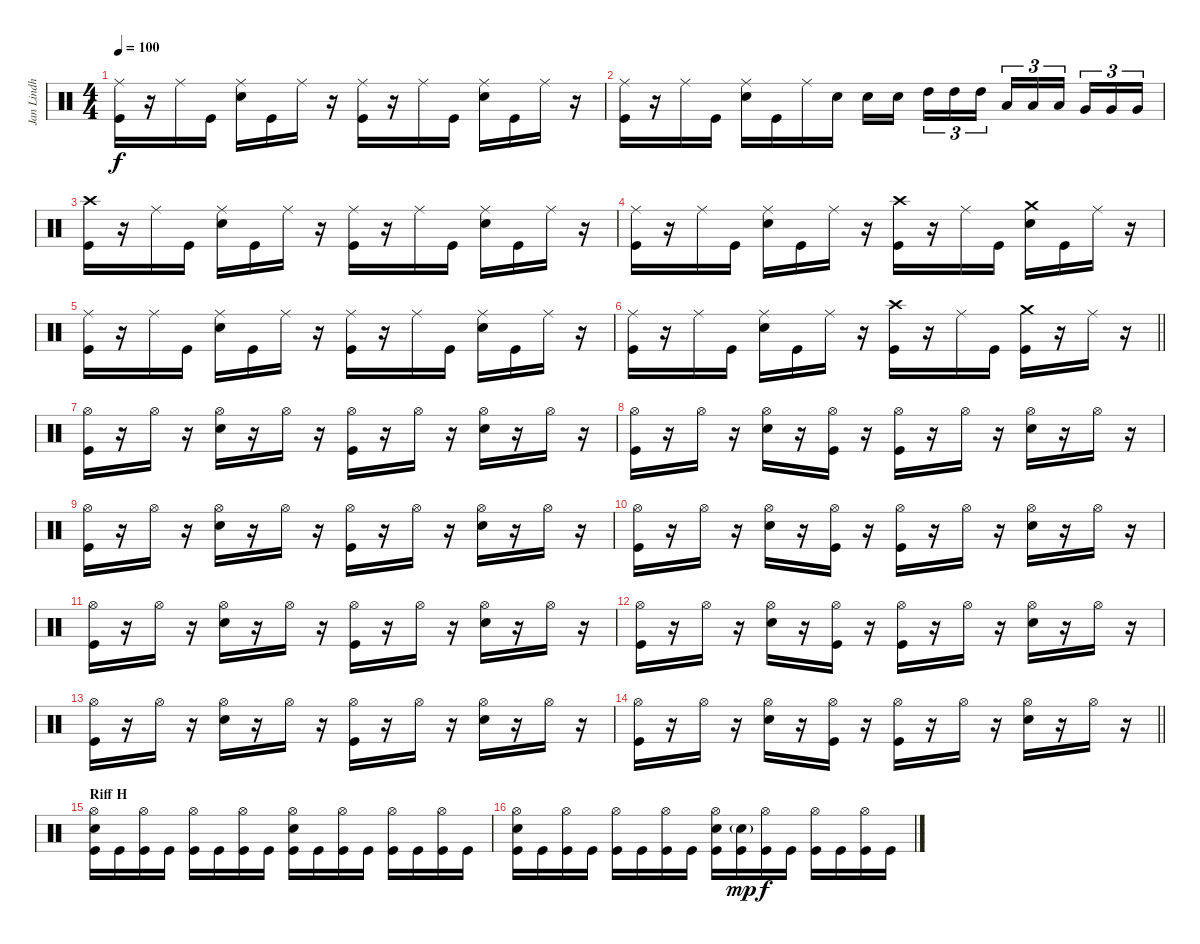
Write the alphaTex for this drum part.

\track ("Jan Lindh" "Jan Lindh") {instrument percussion}
\staff {score}
\articulation defaults
\ts (4 4)
\tempo 100
\clef neutral
\ks c
("Ride (middle)" "Kick (hit)").16{dy f} r.16 "Ride (middle)".16 "Kick (hit)".16 ("Ride (middle)" "Snare (hit) 2").16 "Kick (hit)".16 "Ride (middle)".16 r.16 ("Ride (middle)" "Kick (hit)").16 r.16 "Ride (middle)".16 "Kick (hit)".16 ("Ride (middle)" "Snare (hit) 2").16 "Kick (hit)".16 "Ride (middle)".16 r.16 |
("Ride (middle)" "Kick (hit)").16 r.16 "Ride (middle)".16 "Kick (hit)".16 ("Ride (middle)" "Snare (hit) 2").16 "Kick (hit)".16 "Ride (middle)".16 "Snare (hit) 2".16 "Snare (hit) 2".16 "Snare (hit) 2".16{beam splitsecondary} "High Tom (hit)".16{tu (3 2)} "High Tom (hit)".16{tu (3 2)} "High Tom (hit)".16{tu (3 2)} "Low Tom (hit)".16{tu (3 2)} "Low Tom (hit)".16{tu (3 2)} "Low Tom (hit)".16{tu (3 2) beam splitsecondary} "Very Low Tom (hit)".16{tu (3 2)} "Very Low Tom (hit)".16{tu (3 2)} "Very Low Tom (hit)".16{tu (3 2)} |
("Crash high (hit)" "Kick (hit)").16 r.16 "Ride (middle)".16 "Kick (hit)".16 ("Ride (middle)" "Snare (hit) 2").16 "Kick (hit)".16 "Ride (middle)".16 r.16 ("Ride (middle)" "Kick (hit)").16 r.16 "Ride (middle)".16 "Kick (hit)".16 ("Ride (middle)" "Snare (hit) 2").16 "Kick (hit)".16 "Ride (middle)".16 r.16 |
("Ride (middle)" "Kick (hit)").16 r.16 "Ride (middle)".16 "Kick (hit)".16 ("Ride (middle)" "Snare (hit) 2").16 "Kick (hit)".16 "Ride (middle)".16 r.16 ("Crash high (hit)" "Kick (hit)").16 r.16 "Ride (middle)".16 "Kick (hit)".16 ("Crash medium (hit)" "Snare (hit) 2").16 "Kick (hit)".16 "Ride (middle)".16 r.16 |
("Ride (middle)" "Kick (hit)").16 r.16 "Ride (middle)".16 "Kick (hit)".16 ("Ride (middle)" "Snare (hit) 2").16 "Kick (hit)".16 "Ride (middle)".16 r.16 ("Ride (middle)" "Kick (hit)").16 r.16 "Ride (middle)".16 "Kick (hit)".16 ("Ride (middle)" "Snare (hit) 2").16 "Kick (hit)".16 "Ride (middle)".16 r.16 |
\barLineRight lightlight
("Ride (middle)" "Kick (hit)").16 r.16 "Ride (middle)".16 "Kick (hit)".16 ("Ride (middle)" "Snare (hit) 2").16 "Kick (hit)".16 "Ride (middle)".16 r.16 ("Crash high (hit)" "Kick (hit)").16 r.16 "Ride (middle)".16 "Kick (hit)".16 ("Crash medium (hit)" "Kick (hit)").16 r.16 "Ride (middle)".16 r.16 |
("Hi-Hat (open)" "Kick (hit)").16 r.16 "Hi-Hat (open)".16 r.16 ("Hi-Hat (open)" "Snare (hit) 2").16 r.16 "Hi-Hat (open)".16 r.16 ("Hi-Hat (open)" "Kick (hit)").16 r.16 "Hi-Hat (open)".16 r.16 ("Hi-Hat (open)" "Snare (hit) 2").16 r.16 "Hi-Hat (open)".16 r.16 |
("Hi-Hat (open)" "Kick (hit)").16 r.16 "Hi-Hat (open)".16 r.16 ("Hi-Hat (open)" "Snare (hit) 2").16 r.16 ("Hi-Hat (open)" "Kick (hit)").16 r.16 ("Hi-Hat (open)" "Kick (hit)").16 r.16 "Hi-Hat (open)".16 r.16 ("Hi-Hat (open)" "Snare (hit) 2").16 r.16 "Hi-Hat (open)".16 r.16 |
("Hi-Hat (open)" "Kick (hit)").16 r.16 "Hi-Hat (open)".16 r.16 ("Hi-Hat (open)" "Snare (hit) 2").16 r.16 "Hi-Hat (open)".16 r.16 ("Hi-Hat (open)" "Kick (hit)").16 r.16 "Hi-Hat (open)".16 r.16 ("Hi-Hat (open)" "Snare (hit) 2").16 r.16 "Hi-Hat (open)".16 r.16 |
("Hi-Hat (open)" "Kick (hit)").16 r.16 "Hi-Hat (open)".16 r.16 ("Hi-Hat (open)" "Snare (hit) 2").16 r.16 ("Hi-Hat (open)" "Kick (hit)").16 r.16 ("Hi-Hat (open)" "Kick (hit)").16 r.16 "Hi-Hat (open)".16 r.16 ("Hi-Hat (open)" "Snare (hit) 2").16 r.16 "Hi-Hat (open)".16 r.16 |
("Hi-Hat (open)" "Kick (hit)").16 r.16 "Hi-Hat (open)".16 r.16 ("Hi-Hat (open)" "Snare (hit) 2").16 r.16 "Hi-Hat (open)".16 r.16 ("Hi-Hat (open)" "Kick (hit)").16 r.16 "Hi-Hat (open)".16 r.16 ("Hi-Hat (open)" "Snare (hit) 2").16 r.16 "Hi-Hat (open)".16 r.16 |
("Hi-Hat (open)" "Kick (hit)").16 r.16 "Hi-Hat (open)".16 r.16 ("Hi-Hat (open)" "Snare (hit) 2").16 r.16 ("Hi-Hat (open)" "Kick (hit)").16 r.16 ("Hi-Hat (open)" "Kick (hit)").16 r.16 "Hi-Hat (open)".16 r.16 ("Hi-Hat (open)" "Snare (hit) 2").16 r.16 "Hi-Hat (open)".16 r.16 |
("Hi-Hat (open)" "Kick (hit)").16 r.16 "Hi-Hat (open)".16 r.16 ("Hi-Hat (open)" "Snare (hit) 2").16 r.16 "Hi-Hat (open)".16 r.16 ("Hi-Hat (open)" "Kick (hit)").16 r.16 "Hi-Hat (open)".16 r.16 ("Hi-Hat (open)" "Snare (hit) 2").16 r.16 "Hi-Hat (open)".16 r.16 |
\barLineRight lightlight
("Hi-Hat (open)" "Kick (hit)").16 r.16 "Hi-Hat (open)".16 r.16 ("Hi-Hat (open)" "Snare (hit) 2").16 r.16 ("Hi-Hat (open)" "Kick (hit)").16 r.16 ("Hi-Hat (open)" "Kick (hit)").16 r.16 "Hi-Hat (open)".16 r.16 ("Hi-Hat (open)" "Snare (hit) 2").16 r.16 "Hi-Hat (open)".16 r.16 |
\section ("" "Riff H")
("Hi-Hat (open)" "Snare (hit) 2" "Kick (hit)").16 "Kick (hit)".16 ("Hi-Hat (open)" "Kick (hit)").16 "Kick (hit)".16 ("Hi-Hat (open)" "Kick (hit)").16 "Kick (hit)".16 ("Hi-Hat (open)" "Kick (hit)").16 "Kick (hit)".16 ("Hi-Hat (open)" "Snare (hit) 2" "Kick (hit)").16 "Kick (hit)".16 ("Hi-Hat (open)" "Kick (hit)").16 "Kick (hit)".16 ("Hi-Hat (open)" "Kick (hit)").16 "Kick (hit)".16 ("Hi-Hat (open)" "Kick (hit)").16 "Kick (hit)".16 |
("Hi-Hat (open)" "Snare (hit) 2" "Kick (hit)").16 "Kick (hit)".16 ("Hi-Hat (open)" "Kick (hit)").16 "Kick (hit)".16 ("Hi-Hat (open)" "Kick (hit)").16 "Kick (hit)".16 ("Hi-Hat (open)" "Kick (hit)").16 "Kick (hit)".16 ("Hi-Hat (open)" "Snare (hit) 2" "Kick (hit)").16 ("Snare (hit) 2"{g} "Kick (hit)").16{dy mp} ("Hi-Hat (open)" "Kick (hit)").16{dy f} "Kick (hit)".16 ("Hi-Hat (open)" "Kick (hit)").16 "Kick (hit)".16 ("Hi-Hat (open)" "Kick (hit)").16 "Kick (hit)".16
